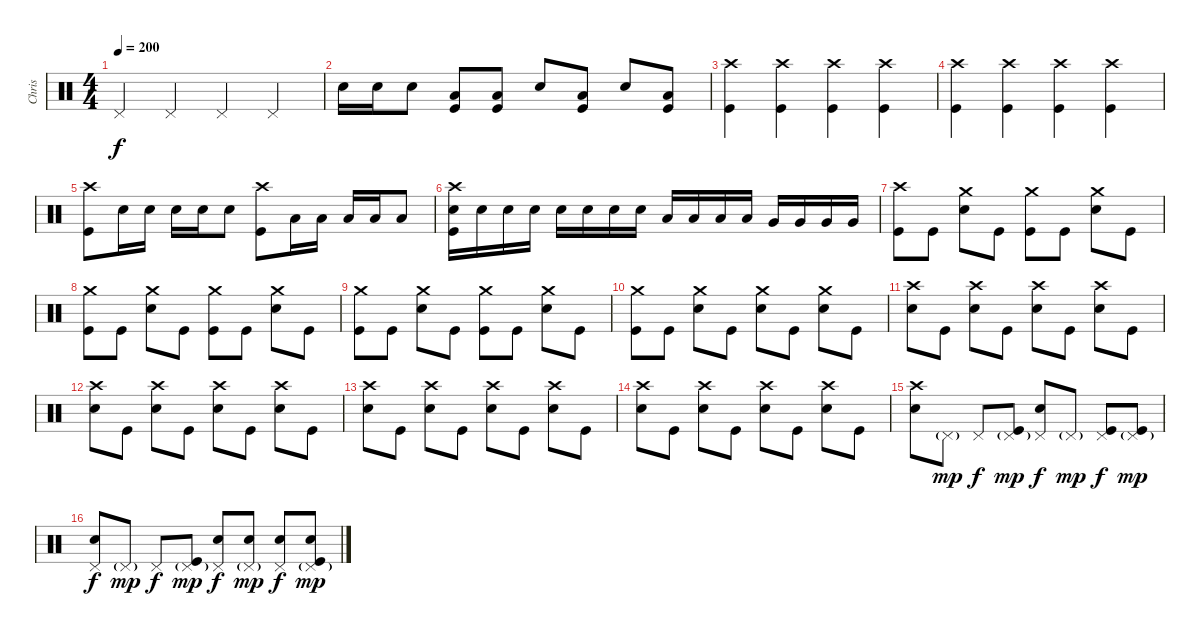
\track ("Chris" "Chris") {instrument percussion}
\staff {score}
\articulation defaults
\ts (4 4)
\tempo 200
\clef neutral
\ks c "Pedal Hi-Hat (hit)".4{dy f} "Pedal Hi-Hat (hit)".4 "Pedal Hi-Hat (hit)".4 "Pedal Hi-Hat (hit)".4
|
"Electric Snare (hit)".16 "Electric Snare (hit)".16 "Electric Snare (hit)".8 ("Low Floor Tom (hit)" "Kick (hit)").8 ("Low Floor Tom (hit)" "Kick (hit)").8 "Electric Snare (hit)".8 ("Low Floor Tom (hit)" "Kick (hit)").8 "Electric Snare (hit)".8 ("Low Floor Tom (hit)" "Kick (hit)").8 |
("Crash high (hit)" "Kick (hit)").4 ("Crash high (hit)" "Kick (hit)").4 ("Crash high (hit)" "Kick (hit)").4 ("Crash high (hit)" "Kick (hit)").4 |
("Crash high (hit)" "Kick (hit)").4 ("Crash high (hit)" "Kick (hit)").4 ("Crash high (hit)" "Kick (hit)").4 ("Crash high (hit)" "Kick (hit)").4 |
("Crash high (hit)" "Kick (hit)").8 "Electric Snare (hit)".16 "Electric Snare (hit)".16 "Electric Snare (hit)".16 "Electric Snare (hit)".16 "Electric Snare (hit)".8 ("Crash high (hit)" "Kick (hit)").8 "Low Tom (hit)".16 "Low Tom (hit)".16 "Low Tom (hit)".16 "Low Tom (hit)".16 "Low Tom (hit)".8 |
("Crash high (hit)" "Electric Snare (hit)" "Kick (hit)").16 "Electric Snare (hit)".16 "Electric Snare (hit)".16 "Electric Snare (hit)".16 "Electric Snare (hit)".16 "Electric Snare (hit)".16 "Electric Snare (hit)".16 "Electric Snare (hit)".16 "Low Tom (hit)".16 "Low Tom (hit)".16 "Low Tom (hit)".16 "Low Tom (hit)".16 "Very Low Tom (hit)".16 "Very Low Tom (hit)".16 "Very Low Tom (hit)".16 "Very Low Tom (hit)".16 |
("Crash high (hit)" "Kick (hit)").8 "Kick (hit)".8 ("Crash medium (hit)" "Electric Snare (hit)").8 "Kick (hit)".8 ("Crash medium (hit)" "Kick (hit)").8 "Kick (hit)".8 ("Crash medium (hit)" "Electric Snare (hit)").8 "Kick (hit)".8 |
("Crash medium (hit)" "Kick (hit)").8 "Kick (hit)".8 ("Crash medium (hit)" "Electric Snare (hit)").8 "Kick (hit)".8 ("Crash medium (hit)" "Kick (hit)").8 "Kick (hit)".8 ("Crash medium (hit)" "Electric Snare (hit)").8 "Kick (hit)".8 |
("Crash medium (hit)" "Kick (hit)").8 "Kick (hit)".8 ("Crash medium (hit)" "Electric Snare (hit)").8 "Kick (hit)".8 ("Crash medium (hit)" "Kick (hit)").8 "Kick (hit)".8 ("Crash medium (hit)" "Electric Snare (hit)").8 "Kick (hit)".8 |
("Crash medium (hit)" "Kick (hit)").8 "Kick (hit)".8 ("Crash medium (hit)" "Electric Snare (hit)").8 "Kick (hit)".8 ("Crash medium (hit)" "Electric Snare (hit)").8 "Kick (hit)".8 ("Crash medium (hit)" "Electric Snare (hit)").8 "Kick (hit)".8 |
("Crash high (hit)" "Electric Snare (hit)").8 "Kick (hit)".8 ("Crash high (hit)" "Electric Snare (hit)").8 "Kick (hit)".8 ("Crash high (hit)" "Electric Snare (hit)").8 "Kick (hit)".8 ("Crash high (hit)" "Electric Snare (hit)").8 "Kick (hit)".8 |
("Crash high (hit)" "Electric Snare (hit)").8 "Kick (hit)".8 ("Crash high (hit)" "Electric Snare (hit)").8 "Kick (hit)".8 ("Crash high (hit)" "Electric Snare (hit)").8 "Kick (hit)".8 ("Crash high (hit)" "Electric Snare (hit)").8 "Kick (hit)".8 |
("Crash high (hit)" "Electric Snare (hit)").8 "Kick (hit)".8 ("Crash high (hit)" "Electric Snare (hit)").8 "Kick (hit)".8 ("Crash high (hit)" "Electric Snare (hit)").8 "Kick (hit)".8 ("Crash high (hit)" "Electric Snare (hit)").8 "Kick (hit)".8 |
("Crash high (hit)" "Electric Snare (hit)").8 "Kick (hit)".8 ("Crash high (hit)" "Electric Snare (hit)").8 "Kick (hit)".8 ("Crash high (hit)" "Electric Snare (hit)").8 "Kick (hit)".8 ("Crash high (hit)" "Electric Snare (hit)").8 "Kick (hit)".8 |
("Crash high (hit)" "Electric Snare (hit)").8 "Pedal Hi-Hat (hit)"{g}.8{dy mp} "Pedal Hi-Hat (hit)".8{dy f} ("Pedal Hi-Hat (hit)"{g} "Kick (hit)").8{dy mp} ("Pedal Hi-Hat (hit)" "Electric Snare (hit)").8{dy f} "Pedal Hi-Hat (hit)"{g}.8{dy mp} ("Pedal Hi-Hat (hit)" "Kick (hit)").8{dy f} ("Pedal Hi-Hat (hit)"{g} "Kick (hit)").8{dy mp} |
("Pedal Hi-Hat (hit)" "Electric Snare (hit)").8{dy f} "Pedal Hi-Hat (hit)"{g}.8{dy mp} "Pedal Hi-Hat (hit)".8{dy f} ("Pedal Hi-Hat (hit)"{g} "Kick (hit)").8{dy mp} ("Pedal Hi-Hat (hit)" "Electric Snare (hit)").8{dy f} ("Pedal Hi-Hat (hit)"{g} "Electric Snare (hit)").8{dy mp} ("Pedal Hi-Hat (hit)" "Electric Snare (hit)").8{dy f} ("Pedal Hi-Hat (hit)"{g} "Electric Snare (hit)" "Kick (hit)").8{dy mp}
